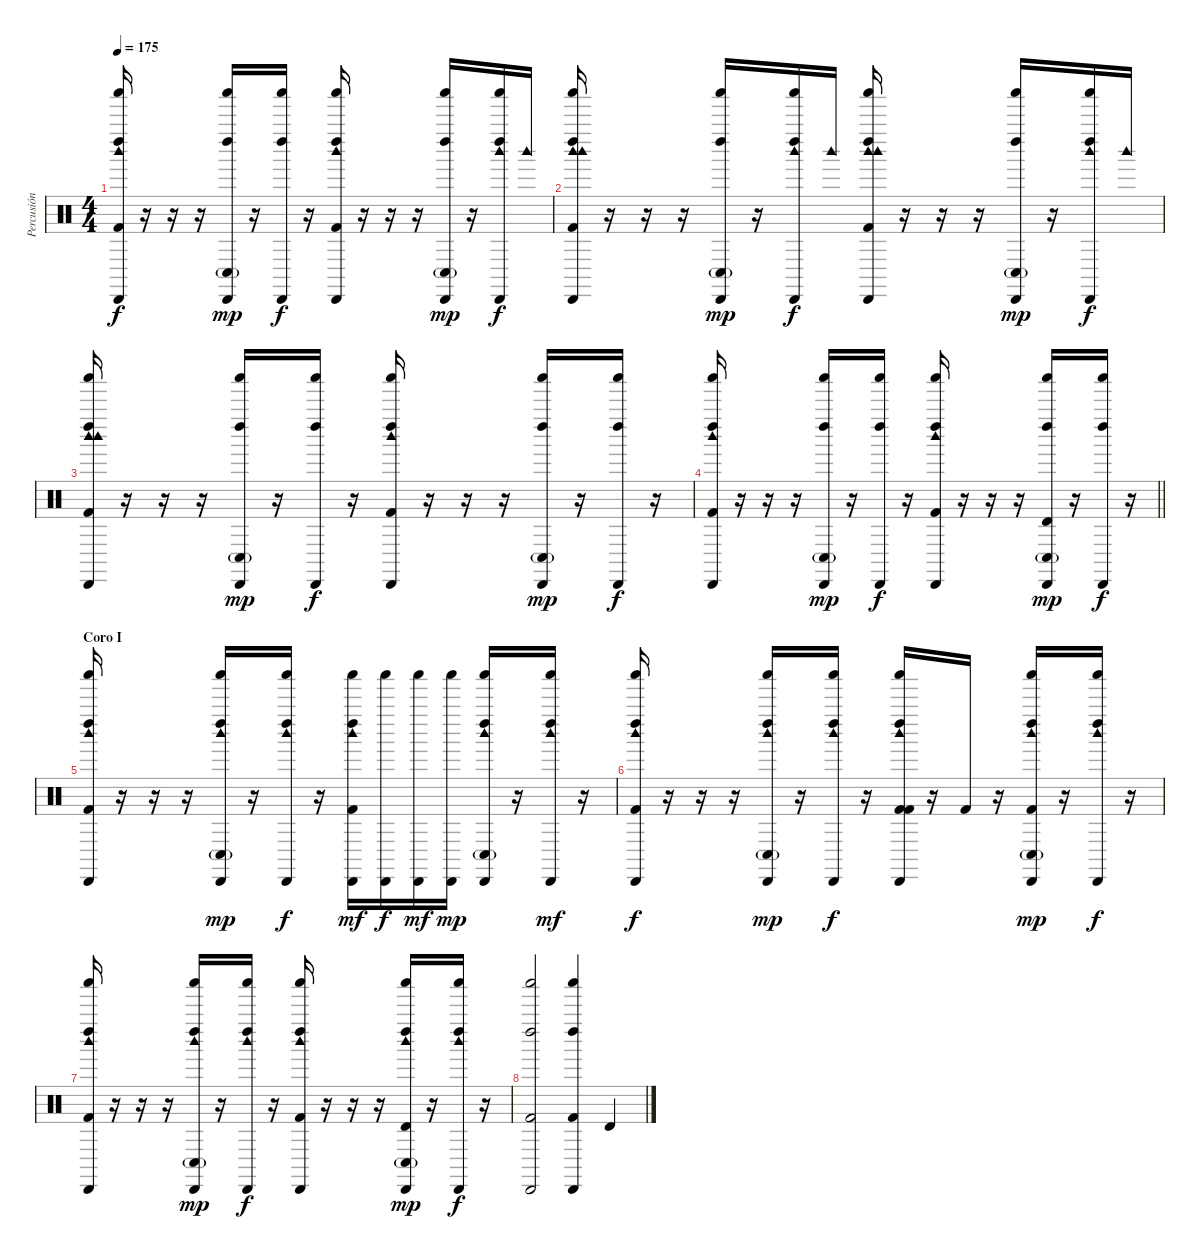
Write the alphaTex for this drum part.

\track ("Percusión" "Percusión") {instrument percussion}
\staff {score}
\articulation defaults
\ts (4 4)
\tempo 175
\clef neutral
\ks c
("Cabasa (hit)" "Shaker (hit)" "Kick (hit) 2" "Left Maraca (hit)" "Woodblock high (hit)").16{dy f} r.16 r.16 r.16 ("Cabasa (hit)" "Shaker (hit)" "Conga low (hit)"{g} "Left Maraca (hit)").16{dy mp} r.16 ("Cabasa (hit)" "Shaker (hit)" "Left Maraca (hit)").16{dy f} r.16 ("Cabasa (hit)" "Shaker (hit)" "Kick (hit) 2" "Left Maraca (hit)" "Woodblock high (hit)").16 r.16 r.16 r.16 ("Cabasa (hit)" "Shaker (hit)" "Conga low (hit)"{g} "Left Maraca (hit)").16{dy mp} r.16 ("Woodblock high (hit)" "Cabasa (hit)" "Shaker (hit)" "Left Maraca (hit)").16{dy f} "Woodblock high (hit)".16 |
("Woodblock high (hit)" "Cabasa (hit)" "Shaker (hit)" "Kick (hit) 2" "Left Maraca (hit)" "Woodblock high (hit)").16 r.16 r.16 r.16 ("Cabasa (hit)" "Shaker (hit)" "Conga low (hit)"{g} "Left Maraca (hit)").16{dy mp} r.16 ("Woodblock high (hit)" "Cabasa (hit)" "Shaker (hit)" "Left Maraca (hit)").16{dy f} "Woodblock high (hit)".16 ("Woodblock high (hit)" "Cabasa (hit)" "Shaker (hit)" "Kick (hit) 2" "Left Maraca (hit)" "Woodblock high (hit)").16 r.16 r.16 r.16 ("Cabasa (hit)" "Shaker (hit)" "Conga low (hit)"{g} "Left Maraca (hit)").16{dy mp} r.16 ("Woodblock high (hit)" "Cabasa (hit)" "Shaker (hit)" "Left Maraca (hit)").16{dy f} "Woodblock high (hit)".16 |
("Woodblock high (hit)" "Cabasa (hit)" "Shaker (hit)" "Kick (hit) 2" "Left Maraca (hit)" "Woodblock high (hit)").16 r.16 r.16 r.16 ("Cabasa (hit)" "Shaker (hit)" "Conga low (hit)"{g} "Left Maraca (hit)").16{dy mp} r.16 ("Cabasa (hit)" "Shaker (hit)" "Left Maraca (hit)").16{dy f} r.16 ("Cabasa (hit)" "Shaker (hit)" "Kick (hit) 2" "Left Maraca (hit)" "Woodblock high (hit)").16 r.16 r.16 r.16 ("Cabasa (hit)" "Shaker (hit)" "Conga low (hit)"{g} "Left Maraca (hit)").16{dy mp} r.16 ("Cabasa (hit)" "Shaker (hit)" "Left Maraca (hit)").16{dy f} r.16 |
\barLineRight lightlight
("Cabasa (hit)" "Shaker (hit)" "Kick (hit) 2" "Left Maraca (hit)" "Woodblock high (hit)").16 r.16 r.16 r.16 ("Cabasa (hit)" "Shaker (hit)" "Conga low (hit)"{g} "Left Maraca (hit)").16{dy mp} r.16 ("Cabasa (hit)" "Shaker (hit)" "Left Maraca (hit)").16{dy f} r.16 ("Cabasa (hit)" "Shaker (hit)" "Kick (hit) 2" "Left Maraca (hit)" "Woodblock high (hit)").16 r.16 r.16 r.16 ("Timbale high (hit)" "Cabasa (hit)" "Shaker (hit)" "Conga low (hit)"{g} "Left Maraca (hit)").16{dy mp} r.16 ("Cabasa (hit)" "Shaker (hit)" "Left Maraca (hit)").16{dy f} r.16 |
\section ("" "Coro I")
("Cabasa (hit)" "Shaker (hit)" "Kick (hit) 2" "Left Maraca (hit)" "Woodblock high (hit)").16 r.16 r.16 r.16 ("Cabasa (hit)" "Shaker (hit)" "Conga low (hit)"{g} "Left Maraca (hit)" "Woodblock high (hit)").16{dy mp} r.16 ("Cabasa (hit)" "Shaker (hit)" "Left Maraca (hit)" "Woodblock high (hit)").16{dy f} r.16 ("Cabasa (hit)" "Shaker (hit)" "Left Maraca (hit)" "Woodblock high (hit)" "Kick (hit) 2").16{dy mf} ("Cabasa (hit)" "Shaker (hit)").16{dy f} ("Cabasa (hit)" "Shaker (hit)").16{dy mf} ("Cabasa (hit)" "Shaker (hit)").16{dy mp} ("Cabasa (hit)" "Shaker (hit)" "Left Maraca (hit)" "Woodblock high (hit)" "Conga low (hit)"{g}).16 r.16 ("Cabasa (hit)" "Shaker (hit)" "Left Maraca (hit)" "Woodblock high (hit)").16{dy mf} r.16 |
("Cabasa (hit)" "Shaker (hit)" "Kick (hit) 2" "Left Maraca (hit)" "Woodblock high (hit)").16{dy f} r.16 r.16 r.16 ("Cabasa (hit)" "Shaker (hit)" "Conga low (hit)"{g} "Left Maraca (hit)" "Woodblock high (hit)").16{dy mp} r.16 ("Cabasa (hit)" "Shaker (hit)" "Left Maraca (hit)" "Woodblock high (hit)").16{dy f} r.16 ("Kick (hit) 2" "Cabasa (hit)" "Shaker (hit)" "Kick (hit) 2" "Left Maraca (hit)" "Woodblock high (hit)").16 r.16 "Kick (hit) 2".16 r.16 ("Kick (hit) 2" "Cabasa (hit)" "Shaker (hit)" "Conga low (hit)"{g} "Left Maraca (hit)" "Woodblock high (hit)").16{dy mp} r.16 ("Cabasa (hit)" "Shaker (hit)" "Left Maraca (hit)" "Woodblock high (hit)").16{dy f} r.16 |
("Cabasa (hit)" "Shaker (hit)" "Kick (hit) 2" "Left Maraca (hit)" "Woodblock high (hit)").16 r.16 r.16 r.16 ("Cabasa (hit)" "Shaker (hit)" "Conga low (hit)"{g} "Left Maraca (hit)" "Woodblock high (hit)").16{dy mp} r.16 ("Cabasa (hit)" "Shaker (hit)" "Left Maraca (hit)" "Woodblock high (hit)").16{dy f} r.16 ("Cabasa (hit)" "Shaker (hit)" "Kick (hit) 2" "Left Maraca (hit)" "Woodblock high (hit)").16 r.16 r.16 r.16 ("Timbale high (hit)" "Cabasa (hit)" "Shaker (hit)" "Conga low (hit)"{g} "Left Maraca (hit)" "Woodblock high (hit)").16{dy mp} r.16 ("Cabasa (hit)" "Shaker (hit)" "Left Maraca (hit)" "Woodblock high (hit)").16{dy f} r.16 |
("Cabasa (hit)" "Shaker (hit)" "Kick (hit) 2" "Left Maraca (hit)").2 ("Cabasa (hit)" "Shaker (hit)" "Kick (hit) 2" "Left Maraca (hit)").4 "Timbale high (hit)".4
